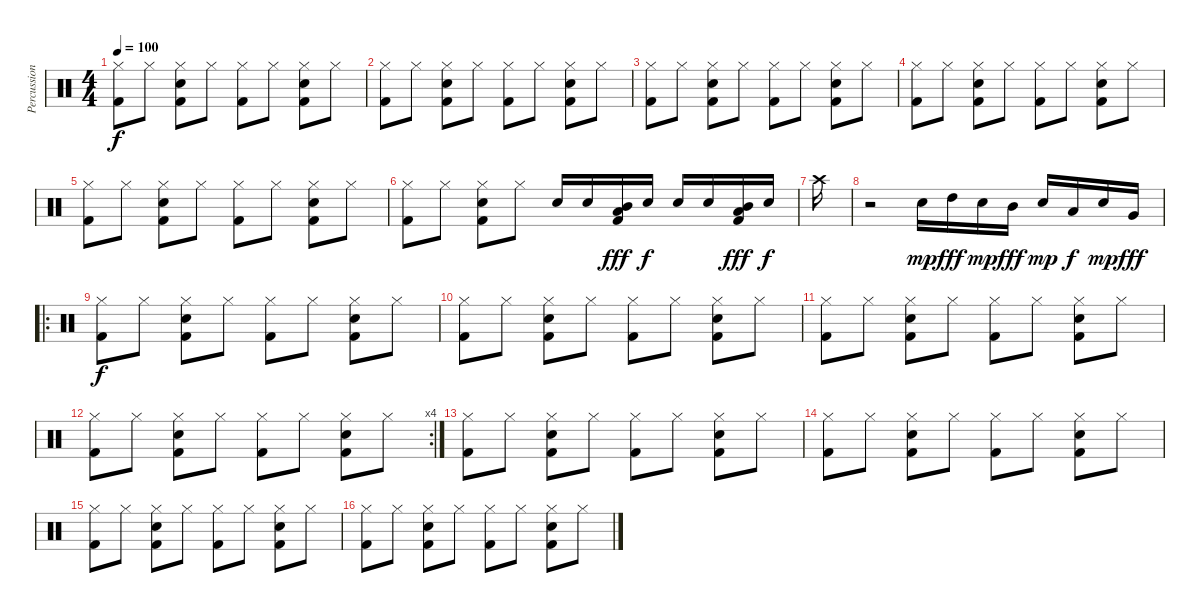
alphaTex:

\track ("Percussion" "Percussion") {instrument percussion}
\staff {score}
\articulation defaults
\ts (4 4)
\tempo 100
\clef neutral
\ks c
("Hi-Hat (closed)" "Kick (hit) 2").8{dy f} "Hi-Hat (closed)".8 ("Hi-Hat (closed)" "Snare (hit) 2" "Kick (hit) 2").8 "Hi-Hat (closed)".8 ("Hi-Hat (closed)" "Kick (hit) 2").8 "Hi-Hat (closed)".8 ("Hi-Hat (closed)" "Snare (hit) 2" "Kick (hit) 2").8 "Hi-Hat (closed)".8 |
("Hi-Hat (closed)" "Kick (hit) 2").8 "Hi-Hat (closed)".8 ("Hi-Hat (closed)" "Snare (hit) 2" "Kick (hit) 2").8 "Hi-Hat (closed)".8 ("Hi-Hat (closed)" "Kick (hit) 2").8 "Hi-Hat (closed)".8 ("Hi-Hat (closed)" "Snare (hit) 2" "Kick (hit) 2").8 "Hi-Hat (closed)".8 |
("Hi-Hat (closed)" "Kick (hit) 2").8 "Hi-Hat (closed)".8 ("Hi-Hat (closed)" "Snare (hit) 2" "Kick (hit) 2").8 "Hi-Hat (closed)".8 ("Hi-Hat (closed)" "Kick (hit) 2").8 "Hi-Hat (closed)".8 ("Hi-Hat (closed)" "Snare (hit) 2" "Kick (hit) 2").8 "Hi-Hat (closed)".8 |
("Hi-Hat (closed)" "Kick (hit) 2").8 "Hi-Hat (closed)".8 ("Hi-Hat (closed)" "Snare (hit) 2" "Kick (hit) 2").8 "Hi-Hat (closed)".8 ("Hi-Hat (closed)" "Kick (hit) 2").8 "Hi-Hat (closed)".8 ("Hi-Hat (closed)" "Snare (hit) 2" "Kick (hit) 2").8 "Hi-Hat (closed)".8 |
("Hi-Hat (closed)" "Kick (hit) 2").8 "Hi-Hat (closed)".8 ("Hi-Hat (closed)" "Snare (hit) 2" "Kick (hit) 2").8 "Hi-Hat (closed)".8 ("Hi-Hat (closed)" "Kick (hit) 2").8 "Hi-Hat (closed)".8 ("Hi-Hat (closed)" "Snare (hit) 2" "Kick (hit) 2").8 "Hi-Hat (closed)".8 |
("Hi-Hat (closed)" "Kick (hit) 2").8 "Hi-Hat (closed)".8 ("Hi-Hat (closed)" "Snare (hit) 2" "Kick (hit) 2").8 "Hi-Hat (closed)".8 "Snare (hit) 2".16 "Snare (hit) 2".16 ("Mid Tom (hit)" "Low Tom (hit)" "Kick (hit) 2").16{dy fff} "Snare (hit) 2".16{dy f} "Snare (hit) 2".16 "Snare (hit) 2".16 ("Low Tom (hit)" "Mid Tom (hit)" "Kick (hit) 2").16{dy fff} "Snare (hit) 2".16{dy f} |
"Crash high (hit)".16 |
r.2 "Snare (hit) 2".16{dy mp} "High Tom (hit)".16{dy fff} "Snare (hit) 2".16{dy mp} "Mid Tom (hit)".16{dy fff} "Snare (hit) 2".16{dy mp} "Low Tom (hit)".16{dy f} "Snare (hit) 2".16{dy mp} "Very Low Tom (hit)".16{dy fff} |
\ro
("Hi-Hat (closed)" "Kick (hit) 2").8{dy f} "Hi-Hat (closed)".8 ("Hi-Hat (closed)" "Snare (hit) 2" "Kick (hit) 2").8 "Hi-Hat (closed)".8 ("Hi-Hat (closed)" "Kick (hit) 2").8 "Hi-Hat (closed)".8 ("Hi-Hat (closed)" "Snare (hit) 2" "Kick (hit) 2").8 "Hi-Hat (closed)".8 |
("Hi-Hat (closed)" "Kick (hit) 2").8 "Hi-Hat (closed)".8 ("Hi-Hat (closed)" "Snare (hit) 2" "Kick (hit) 2").8 "Hi-Hat (closed)".8 ("Hi-Hat (closed)" "Kick (hit) 2").8 "Hi-Hat (closed)".8 ("Hi-Hat (closed)" "Snare (hit) 2" "Kick (hit) 2").8 "Hi-Hat (closed)".8 |
("Hi-Hat (closed)" "Kick (hit) 2").8 "Hi-Hat (closed)".8 ("Hi-Hat (closed)" "Snare (hit) 2" "Kick (hit) 2").8 "Hi-Hat (closed)".8 ("Hi-Hat (closed)" "Kick (hit) 2").8 "Hi-Hat (closed)".8 ("Hi-Hat (closed)" "Snare (hit) 2" "Kick (hit) 2").8 "Hi-Hat (closed)".8 |
\rc 4
("Hi-Hat (closed)" "Kick (hit) 2").8 "Hi-Hat (closed)".8 ("Hi-Hat (closed)" "Snare (hit) 2" "Kick (hit) 2").8 "Hi-Hat (closed)".8 ("Hi-Hat (closed)" "Kick (hit) 2").8 "Hi-Hat (closed)".8 ("Hi-Hat (closed)" "Snare (hit) 2" "Kick (hit) 2").8 "Hi-Hat (closed)".8 |
("Hi-Hat (closed)" "Kick (hit) 2").8 "Hi-Hat (closed)".8 ("Hi-Hat (closed)" "Snare (hit) 2" "Kick (hit) 2").8 "Hi-Hat (closed)".8 ("Hi-Hat (closed)" "Kick (hit) 2").8 "Hi-Hat (closed)".8 ("Hi-Hat (closed)" "Snare (hit) 2" "Kick (hit) 2").8 "Hi-Hat (closed)".8 |
("Hi-Hat (closed)" "Kick (hit) 2").8 "Hi-Hat (closed)".8 ("Hi-Hat (closed)" "Snare (hit) 2" "Kick (hit) 2").8 "Hi-Hat (closed)".8 ("Hi-Hat (closed)" "Kick (hit) 2").8 "Hi-Hat (closed)".8 ("Hi-Hat (closed)" "Snare (hit) 2" "Kick (hit) 2").8 "Hi-Hat (closed)".8 |
("Hi-Hat (closed)" "Kick (hit) 2").8 "Hi-Hat (closed)".8 ("Hi-Hat (closed)" "Snare (hit) 2" "Kick (hit) 2").8 "Hi-Hat (closed)".8 ("Hi-Hat (closed)" "Kick (hit) 2").8 "Hi-Hat (closed)".8 ("Hi-Hat (closed)" "Snare (hit) 2" "Kick (hit) 2").8 "Hi-Hat (closed)".8 |
("Hi-Hat (closed)" "Kick (hit) 2").8 "Hi-Hat (closed)".8 ("Hi-Hat (closed)" "Snare (hit) 2" "Kick (hit) 2").8 "Hi-Hat (closed)".8 ("Hi-Hat (closed)" "Kick (hit) 2").8 "Hi-Hat (closed)".8 ("Hi-Hat (closed)" "Snare (hit) 2" "Kick (hit) 2").8 "Hi-Hat (closed)".8
